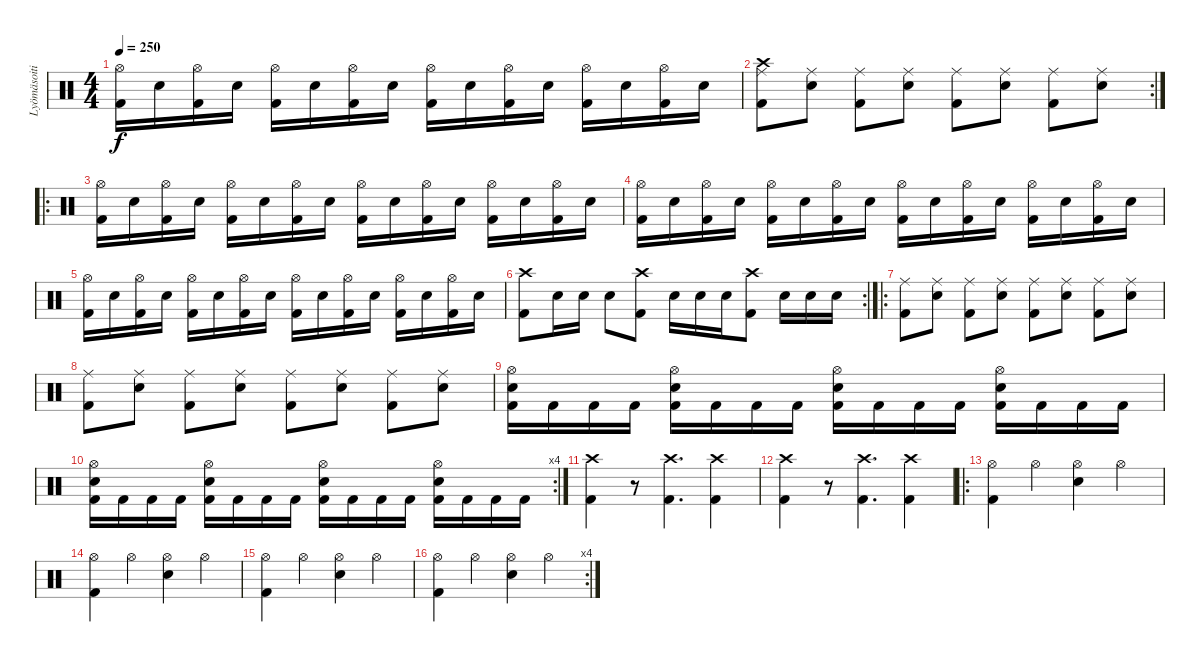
\track ("Lyömäsoitin" "Lyömäsoiti") {instrument percussion}
\staff {score}
\articulation defaults
\ts (4 4)
\tempo 250
\clef neutral
\ks c
("Hi-Hat (open)" "Kick (hit) 2").16{dy f} "Electric Snare (hit)".16 ("Hi-Hat (open)" "Kick (hit) 2").16 "Electric Snare (hit)".16 ("Hi-Hat (open)" "Kick (hit) 2").16 "Electric Snare (hit)".16 ("Hi-Hat (open)" "Kick (hit) 2").16 "Electric Snare (hit)".16 ("Hi-Hat (open)" "Kick (hit) 2").16 "Electric Snare (hit)".16 ("Hi-Hat (open)" "Kick (hit) 2").16 "Electric Snare (hit)".16 ("Hi-Hat (open)" "Kick (hit) 2").16 "Electric Snare (hit)".16 ("Hi-Hat (open)" "Kick (hit) 2").16 "Electric Snare (hit)".16 |
\rc 2
("Crash high (hit)" "Ride (middle)" "Kick (hit) 2").8 ("Ride (middle)" "Electric Snare (hit)").8 ("Ride (middle)" "Kick (hit) 2").8 ("Ride (middle)" "Electric Snare (hit)").8 ("Ride (middle)" "Kick (hit) 2").8 ("Ride (middle)" "Electric Snare (hit)").8 ("Ride (middle)" "Kick (hit) 2").8 ("Ride (middle)" "Electric Snare (hit)").8 |
\ro
("Hi-Hat (open)" "Kick (hit) 2").16 "Electric Snare (hit)".16 ("Hi-Hat (open)" "Kick (hit) 2").16 "Electric Snare (hit)".16 ("Hi-Hat (open)" "Kick (hit) 2").16 "Electric Snare (hit)".16 ("Hi-Hat (open)" "Kick (hit) 2").16 "Electric Snare (hit)".16 ("Hi-Hat (open)" "Kick (hit) 2").16 "Electric Snare (hit)".16 ("Hi-Hat (open)" "Kick (hit) 2").16 "Electric Snare (hit)".16 ("Hi-Hat (open)" "Kick (hit) 2").16 "Electric Snare (hit)".16 ("Hi-Hat (open)" "Kick (hit) 2").16 "Electric Snare (hit)".16 |
("Hi-Hat (open)" "Kick (hit) 2").16 "Electric Snare (hit)".16 ("Hi-Hat (open)" "Kick (hit) 2").16 "Electric Snare (hit)".16 ("Hi-Hat (open)" "Kick (hit) 2").16 "Electric Snare (hit)".16 ("Hi-Hat (open)" "Kick (hit) 2").16 "Electric Snare (hit)".16 ("Hi-Hat (open)" "Kick (hit) 2").16 "Electric Snare (hit)".16 ("Hi-Hat (open)" "Kick (hit) 2").16 "Electric Snare (hit)".16 ("Hi-Hat (open)" "Kick (hit) 2").16 "Electric Snare (hit)".16 ("Hi-Hat (open)" "Kick (hit) 2").16 "Electric Snare (hit)".16 |
("Hi-Hat (open)" "Kick (hit) 2").16 "Electric Snare (hit)".16 ("Hi-Hat (open)" "Kick (hit) 2").16 "Electric Snare (hit)".16 ("Hi-Hat (open)" "Kick (hit) 2").16 "Electric Snare (hit)".16 ("Hi-Hat (open)" "Kick (hit) 2").16 "Electric Snare (hit)".16 ("Hi-Hat (open)" "Kick (hit) 2").16 "Electric Snare (hit)".16 ("Hi-Hat (open)" "Kick (hit) 2").16 "Electric Snare (hit)".16 ("Hi-Hat (open)" "Kick (hit) 2").16 "Electric Snare (hit)".16 ("Hi-Hat (open)" "Kick (hit) 2").16 "Electric Snare (hit)".16 |
\rc 2
("Crash high (hit)" "Kick (hit) 2").8 "Electric Snare (hit)".16 "Electric Snare (hit)".16 "Electric Snare (hit)".8 ("Crash high (hit)" "Kick (hit) 2").8 "Electric Snare (hit)".16 "Electric Snare (hit)".16 "Electric Snare (hit)".16 ("Crash high (hit)" "Kick (hit) 2").8 "Electric Snare (hit)".16 "Electric Snare (hit)".16 "Electric Snare (hit)".16 |
\ro
("Ride (middle)" "Kick (hit) 2").8 ("Ride (middle)" "Electric Snare (hit)").8 ("Ride (middle)" "Kick (hit) 2").8 ("Ride (middle)" "Electric Snare (hit)").8 ("Ride (middle)" "Kick (hit) 2").8 ("Ride (middle)" "Electric Snare (hit)").8 ("Ride (middle)" "Kick (hit) 2").8 ("Ride (middle)" "Electric Snare (hit)").8 |
("Ride (middle)" "Kick (hit) 2").8 ("Ride (middle)" "Electric Snare (hit)").8 ("Ride (middle)" "Kick (hit) 2").8 ("Ride (middle)" "Electric Snare (hit)").8 ("Ride (middle)" "Kick (hit) 2").8 ("Ride (middle)" "Electric Snare (hit)").8 ("Ride (middle)" "Kick (hit) 2").8 ("Ride (middle)" "Electric Snare (hit)").8 |
("Hi-Hat (open)" "Electric Snare (hit)" "Kick (hit) 2").16 "Kick (hit) 2".16 "Kick (hit) 2".16 "Kick (hit) 2".16 ("Hi-Hat (open)" "Electric Snare (hit)" "Kick (hit) 2").16 "Kick (hit) 2".16 "Kick (hit) 2".16 "Kick (hit) 2".16 ("Hi-Hat (open)" "Electric Snare (hit)" "Kick (hit) 2").16 "Kick (hit) 2".16 "Kick (hit) 2".16 "Kick (hit) 2".16 ("Hi-Hat (open)" "Electric Snare (hit)" "Kick (hit) 2").16 "Kick (hit) 2".16 "Kick (hit) 2".16 "Kick (hit) 2".16 |
\rc 4
("Hi-Hat (open)" "Electric Snare (hit)" "Kick (hit) 2").16 "Kick (hit) 2".16 "Kick (hit) 2".16 "Kick (hit) 2".16 ("Hi-Hat (open)" "Electric Snare (hit)" "Kick (hit) 2").16 "Kick (hit) 2".16 "Kick (hit) 2".16 "Kick (hit) 2".16 ("Hi-Hat (open)" "Electric Snare (hit)" "Kick (hit) 2").16 "Kick (hit) 2".16 "Kick (hit) 2".16 "Kick (hit) 2".16 ("Hi-Hat (open)" "Electric Snare (hit)" "Kick (hit) 2").16 "Kick (hit) 2".16 "Kick (hit) 2".16 "Kick (hit) 2".16 |
("Crash high (hit)" "Kick (hit) 2").4 r.8 ("Crash high (hit)" "Kick (hit) 2").4{d} ("Crash high (hit)" "Kick (hit) 2").4 |
("Crash high (hit)" "Kick (hit) 2").4 r.8 ("Crash high (hit)" "Kick (hit) 2").4{d} ("Crash high (hit)" "Kick (hit) 2").4 |
\ro
("Hi-Hat (open)" "Kick (hit) 2").4 "Hi-Hat (open)".4 ("Hi-Hat (open)" "Electric Snare (hit)").4 "Hi-Hat (open)".4 |
("Hi-Hat (open)" "Kick (hit) 2").4 "Hi-Hat (open)".4 ("Hi-Hat (open)" "Electric Snare (hit)").4 "Hi-Hat (open)".4 |
("Hi-Hat (open)" "Kick (hit) 2").4 "Hi-Hat (open)".4 ("Hi-Hat (open)" "Electric Snare (hit)").4 "Hi-Hat (open)".4 |
\rc 4
("Hi-Hat (open)" "Kick (hit) 2").4 "Hi-Hat (open)".4 ("Hi-Hat (open)" "Electric Snare (hit)").4 "Hi-Hat (open)".4
